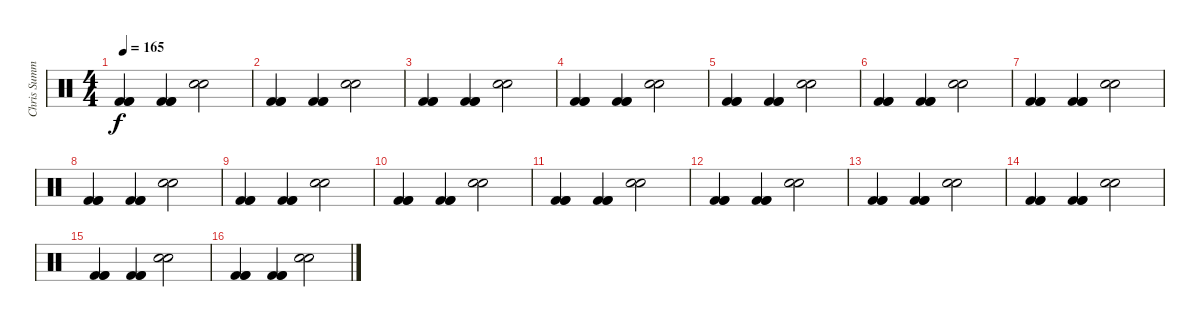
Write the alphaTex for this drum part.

\track ("Chris Summers" "Chris Summ") {instrument percussion}
\staff {score}
\articulation defaults
\ts (4 4)
\tempo 165
\clef neutral
\ks c
("Kick (hit) 2" "Kick (hit) 2" "Kick (hit) 2").4{dy f} ("Kick (hit) 2" "Kick (hit) 2" "Kick (hit) 2").4 ("Electric Snare (hit)" "Hand Clap (hit)").2 |
("Kick (hit) 2" "Kick (hit) 2" "Kick (hit) 2").4 ("Kick (hit) 2" "Kick (hit) 2" "Kick (hit) 2").4 ("Electric Snare (hit)" "Hand Clap (hit)").2 |
("Kick (hit) 2" "Kick (hit) 2" "Kick (hit) 2").4 ("Kick (hit) 2" "Kick (hit) 2" "Kick (hit) 2").4 ("Electric Snare (hit)" "Hand Clap (hit)").2 |
("Kick (hit) 2" "Kick (hit) 2" "Kick (hit) 2").4 ("Kick (hit) 2" "Kick (hit) 2" "Kick (hit) 2").4 ("Electric Snare (hit)" "Hand Clap (hit)").2 |
("Kick (hit) 2" "Kick (hit) 2" "Kick (hit) 2").4 ("Kick (hit) 2" "Kick (hit) 2" "Kick (hit) 2").4 ("Electric Snare (hit)" "Hand Clap (hit)").2 |
("Kick (hit) 2" "Kick (hit) 2" "Kick (hit) 2").4 ("Kick (hit) 2" "Kick (hit) 2" "Kick (hit) 2").4 ("Electric Snare (hit)" "Hand Clap (hit)").2 |
("Kick (hit) 2" "Kick (hit) 2" "Kick (hit) 2").4 ("Kick (hit) 2" "Kick (hit) 2" "Kick (hit) 2").4 ("Electric Snare (hit)" "Hand Clap (hit)").2 |
("Kick (hit) 2" "Kick (hit) 2" "Kick (hit) 2").4 ("Kick (hit) 2" "Kick (hit) 2" "Kick (hit) 2").4 ("Electric Snare (hit)" "Hand Clap (hit)").2 |
("Kick (hit) 2" "Kick (hit) 2" "Kick (hit) 2").4 ("Kick (hit) 2" "Kick (hit) 2" "Kick (hit) 2").4 ("Electric Snare (hit)" "Hand Clap (hit)").2 |
("Kick (hit) 2" "Kick (hit) 2" "Kick (hit) 2").4 ("Kick (hit) 2" "Kick (hit) 2" "Kick (hit) 2").4 ("Electric Snare (hit)" "Hand Clap (hit)").2 |
("Kick (hit) 2" "Kick (hit) 2" "Kick (hit) 2").4 ("Kick (hit) 2" "Kick (hit) 2" "Kick (hit) 2").4 ("Electric Snare (hit)" "Hand Clap (hit)").2 |
("Kick (hit) 2" "Kick (hit) 2" "Kick (hit) 2").4 ("Kick (hit) 2" "Kick (hit) 2" "Kick (hit) 2").4 ("Electric Snare (hit)" "Hand Clap (hit)").2 |
("Kick (hit) 2" "Kick (hit) 2" "Kick (hit) 2").4 ("Kick (hit) 2" "Kick (hit) 2" "Kick (hit) 2").4 ("Electric Snare (hit)" "Hand Clap (hit)").2 |
("Kick (hit) 2" "Kick (hit) 2" "Kick (hit) 2").4 ("Kick (hit) 2" "Kick (hit) 2" "Kick (hit) 2").4 ("Electric Snare (hit)" "Hand Clap (hit)").2 |
("Kick (hit) 2" "Kick (hit) 2" "Kick (hit) 2").4 ("Kick (hit) 2" "Kick (hit) 2" "Kick (hit) 2").4 ("Electric Snare (hit)" "Hand Clap (hit)").2 |
("Kick (hit) 2" "Kick (hit) 2" "Kick (hit) 2").4 ("Kick (hit) 2" "Kick (hit) 2" "Kick (hit) 2").4 ("Electric Snare (hit)" "Hand Clap (hit)").2
